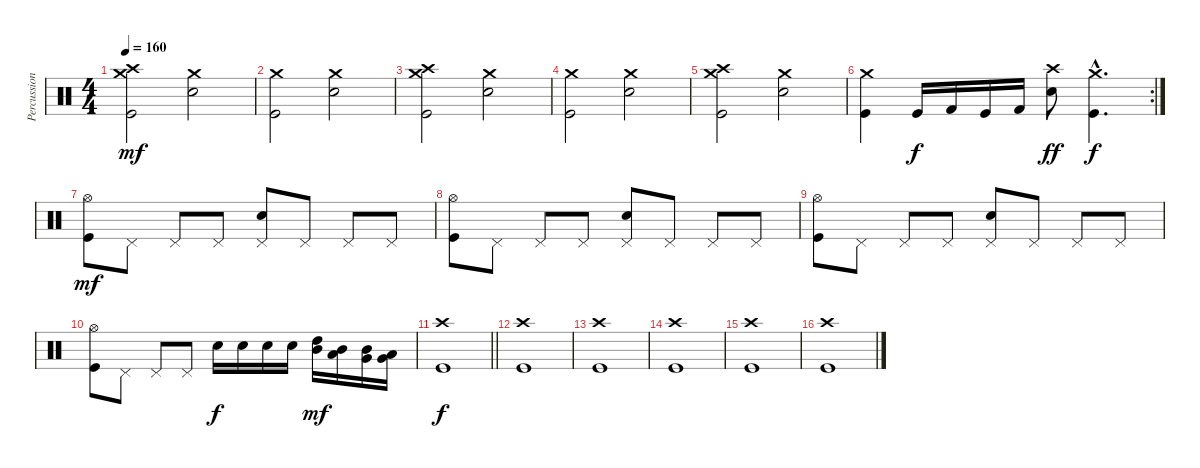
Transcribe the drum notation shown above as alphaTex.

\track ("Percussions" "Percussion") {instrument percussion}
\staff {score}
\articulation defaults
\ts (4 4)
\tempo 160
\clef neutral
\ks c
("Kick (hit)" "Crash medium (hit)" "Crash high (hit)").2{dy mf} ("Electric Snare (hit)" "Crash medium (hit)").2 |
("Kick (hit)" "Crash medium (hit)").2 ("Electric Snare (hit)" "Crash medium (hit)").2 |
("Kick (hit)" "Crash medium (hit)" "Crash high (hit)").2 ("Electric Snare (hit)" "Crash medium (hit)").2 |
("Kick (hit)" "Crash medium (hit)").2 ("Electric Snare (hit)" "Crash medium (hit)").2 |
("Kick (hit)" "Crash medium (hit)" "Crash high (hit)").2 ("Electric Snare (hit)" "Crash medium (hit)").2 |
\rc 2
("Kick (hit)" "Crash medium (hit)").4 "Kick (hit)".16{dy f} "Kick (hit) 2".16 "Kick (hit)".16 "Kick (hit) 2".16 ("Electric Snare (hit)" "Crash high (hit)").8{dy ff} ("Kick (hit)"{hac} "Crash medium (hit)"{hac}).4{d dy f} |
("Kick (hit)" "Hi-Hat (open)").8{dy mf} "Pedal Hi-Hat (hit)".8 "Pedal Hi-Hat (hit)".8 "Pedal Hi-Hat (hit)".8 ("Electric Snare (hit)" "Pedal Hi-Hat (hit)").8 "Pedal Hi-Hat (hit)".8 "Pedal Hi-Hat (hit)".8 "Pedal Hi-Hat (hit)".8 |
("Kick (hit)" "Hi-Hat (open)").8 "Pedal Hi-Hat (hit)".8 "Pedal Hi-Hat (hit)".8 "Pedal Hi-Hat (hit)".8 ("Electric Snare (hit)" "Pedal Hi-Hat (hit)").8 "Pedal Hi-Hat (hit)".8 "Pedal Hi-Hat (hit)".8 "Pedal Hi-Hat (hit)".8 |
("Kick (hit)" "Hi-Hat (open)").8 "Pedal Hi-Hat (hit)".8 "Pedal Hi-Hat (hit)".8 "Pedal Hi-Hat (hit)".8 ("Electric Snare (hit)" "Pedal Hi-Hat (hit)").8 "Pedal Hi-Hat (hit)".8 "Pedal Hi-Hat (hit)".8 "Pedal Hi-Hat (hit)".8 |
("Kick (hit)" "Hi-Hat (open)").8 "Pedal Hi-Hat (hit)".8 "Pedal Hi-Hat (hit)".8 "Pedal Hi-Hat (hit)".8 "Electric Snare (hit)".16{dy f} "Electric Snare (hit)".16 "Electric Snare (hit)".16 "Electric Snare (hit)".16 ("Mid Tom (hit)" "High Tom (hit)").16{dy mf} ("Low Tom (hit)" "Mid Tom (hit)").16 ("Very Low Tom (hit)" "Mid Tom (hit)").16 ("Very Low Tom (hit)" "Low Tom (hit)").16 |
\barLineRight lightlight
("Kick (hit)" "Crash high (hit)").1{dy f} |
("Kick (hit)" "Crash high (hit)").1 |
("Kick (hit)" "Crash high (hit)").1 |
("Kick (hit)" "Crash high (hit)").1 |
("Kick (hit)" "Crash high (hit)").1 |
("Kick (hit)" "Crash high (hit)").1
